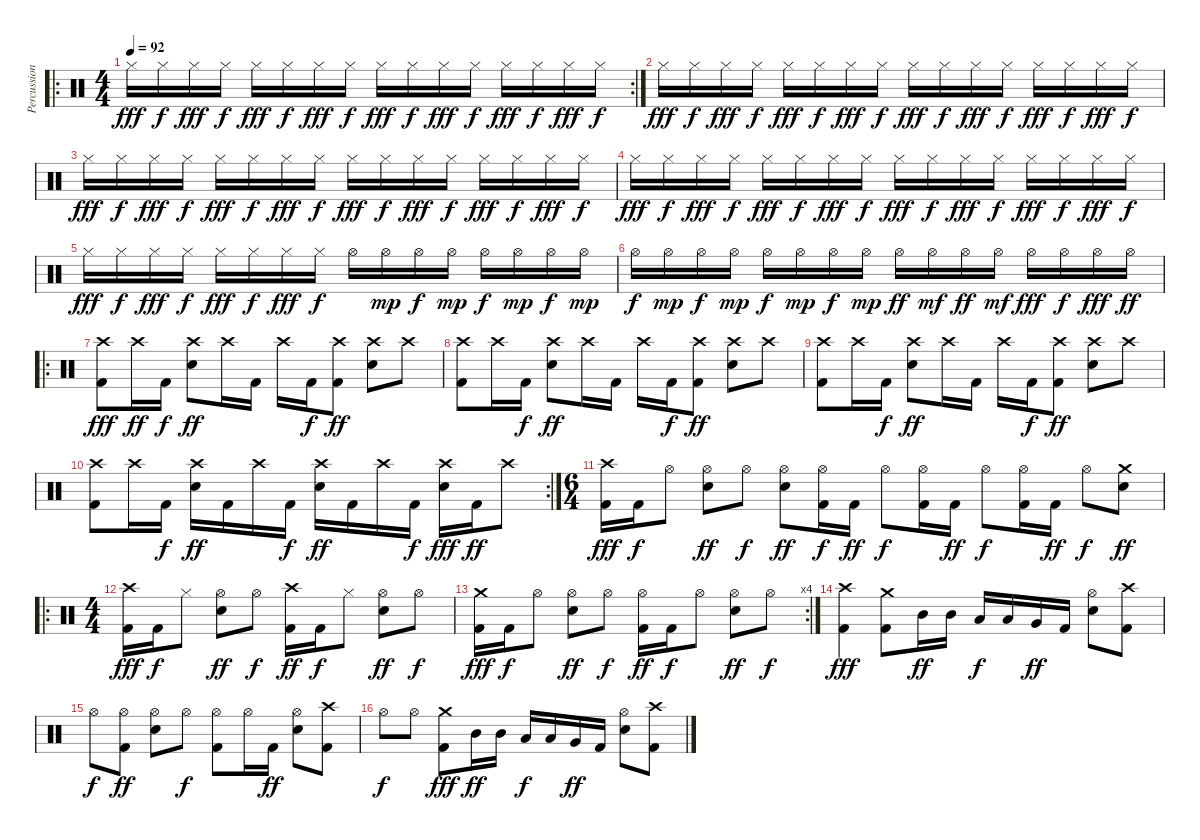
\track ("Percussions" "Percussion") {instrument percussion}
\staff {score}
\articulation defaults
\ro
\rc 2
\ts (4 4)
\tempo 92
\clef neutral
\ks c "Hi-Hat (closed)".16{dy fff} "Hi-Hat (closed)".16{dy f} "Hi-Hat (closed)".16{dy fff} "Hi-Hat (closed)".16{dy f} "Hi-Hat (closed)".16{dy fff} "Hi-Hat (closed)".16{dy f} "Hi-Hat (closed)".16{dy fff} "Hi-Hat (closed)".16{dy f} "Hi-Hat (closed)".16{dy fff} "Hi-Hat (closed)".16{dy f} "Hi-Hat (closed)".16{dy fff} "Hi-Hat (closed)".16{dy f} "Hi-Hat (closed)".16{dy fff} "Hi-Hat (closed)".16{dy f} "Hi-Hat (closed)".16{dy fff} "Hi-Hat (closed)".16{dy f}
|
"Hi-Hat (closed)".16{dy fff} "Hi-Hat (closed)".16{dy f} "Hi-Hat (closed)".16{dy fff} "Hi-Hat (closed)".16{dy f} "Hi-Hat (closed)".16{dy fff} "Hi-Hat (closed)".16{dy f} "Hi-Hat (closed)".16{dy fff} "Hi-Hat (closed)".16{dy f} "Hi-Hat (closed)".16{dy fff} "Hi-Hat (closed)".16{dy f} "Hi-Hat (closed)".16{dy fff} "Hi-Hat (closed)".16{dy f} "Hi-Hat (closed)".16{dy fff} "Hi-Hat (closed)".16{dy f} "Hi-Hat (closed)".16{dy fff} "Hi-Hat (closed)".16{dy f} |
"Hi-Hat (closed)".16{dy fff} "Hi-Hat (closed)".16{dy f} "Hi-Hat (closed)".16{dy fff} "Hi-Hat (closed)".16{dy f} "Hi-Hat (closed)".16{dy fff} "Hi-Hat (closed)".16{dy f} "Hi-Hat (closed)".16{dy fff} "Hi-Hat (closed)".16{dy f} "Hi-Hat (closed)".16{dy fff} "Hi-Hat (closed)".16{dy f} "Hi-Hat (closed)".16{dy fff} "Hi-Hat (closed)".16{dy f} "Hi-Hat (closed)".16{dy fff} "Hi-Hat (closed)".16{dy f} "Hi-Hat (closed)".16{dy fff} "Hi-Hat (closed)".16{dy f} |
"Hi-Hat (closed)".16{dy fff} "Hi-Hat (closed)".16{dy f} "Hi-Hat (closed)".16{dy fff} "Hi-Hat (closed)".16{dy f} "Hi-Hat (closed)".16{dy fff} "Hi-Hat (closed)".16{dy f} "Hi-Hat (closed)".16{dy fff} "Hi-Hat (closed)".16{dy f} "Hi-Hat (closed)".16{dy fff} "Hi-Hat (closed)".16{dy f} "Hi-Hat (closed)".16{dy fff} "Hi-Hat (closed)".16{dy f} "Hi-Hat (closed)".16{dy fff} "Hi-Hat (closed)".16{dy f} "Hi-Hat (closed)".16{dy fff} "Hi-Hat (closed)".16{dy f} |
"Hi-Hat (closed)".16{dy fff} "Hi-Hat (closed)".16{dy f} "Hi-Hat (closed)".16{dy fff} "Hi-Hat (closed)".16{dy f} "Hi-Hat (closed)".16{dy fff} "Hi-Hat (closed)".16{dy f} "Hi-Hat (closed)".16{dy fff} "Hi-Hat (closed)".16{dy f} "Hi-Hat (open)".16 "Hi-Hat (open)".16{dy mp} "Hi-Hat (open)".16{dy f} "Hi-Hat (open)".16{dy mp} "Hi-Hat (open)".16{dy f} "Hi-Hat (open)".16{dy mp} "Hi-Hat (open)".16{dy f} "Hi-Hat (open)".16{dy mp} |
"Hi-Hat (open)".16{dy f} "Hi-Hat (open)".16{dy mp} "Hi-Hat (open)".16{dy f} "Hi-Hat (open)".16{dy mp} "Hi-Hat (open)".16{dy f} "Hi-Hat (open)".16{dy mp} "Hi-Hat (open)".16{dy f} "Hi-Hat (open)".16{dy mp} "Hi-Hat (open)".16{dy ff} "Hi-Hat (open)".16{dy mf} "Hi-Hat (open)".16{dy ff} "Hi-Hat (open)".16{dy mf} "Hi-Hat (open)".16{dy fff} "Hi-Hat (open)".16{dy f} "Hi-Hat (open)".16{dy fff} "Hi-Hat (open)".16{dy ff} |
\ro
("Crash high (hit)" "Kick (hit) 2").8{dy fff} "Crash high (hit)".16{dy ff} "Kick (hit) 2".16{dy f} ("Crash high (hit)" "Electric Snare (hit)").8{dy ff} "Crash high (hit)".16 "Kick (hit) 2".16 "Crash high (hit)".16 "Kick (hit) 2".16{dy f} ("Crash high (hit)" "Kick (hit) 2").8{dy ff} ("Crash high (hit)" "Electric Snare (hit)").8 "Crash high (hit)".8 |
("Crash high (hit)" "Kick (hit) 2").8 "Crash high (hit)".16 "Kick (hit) 2".16{dy f} ("Crash high (hit)" "Electric Snare (hit)").8{dy ff} "Crash high (hit)".16 "Kick (hit) 2".16 "Crash high (hit)".16 "Kick (hit) 2".16{dy f} ("Crash high (hit)" "Kick (hit) 2").8{dy ff} ("Crash high (hit)" "Electric Snare (hit)").8 "Crash high (hit)".8 |
("Crash high (hit)" "Kick (hit) 2").8 "Crash high (hit)".16 "Kick (hit) 2".16{dy f} ("Crash high (hit)" "Electric Snare (hit)").8{dy ff} "Crash high (hit)".16 "Kick (hit) 2".16 "Crash high (hit)".16 "Kick (hit) 2".16{dy f} ("Crash high (hit)" "Kick (hit) 2").8{dy ff} ("Crash high (hit)" "Electric Snare (hit)").8 "Crash high (hit)".8 |
\rc 2
("Crash high (hit)" "Kick (hit) 2").8 "Crash high (hit)".16 "Kick (hit) 2".16{dy f} ("Crash high (hit)" "Electric Snare (hit)").16{dy ff} "Kick (hit) 2".16 "Crash high (hit)".16 "Kick (hit) 2".16{dy f} ("Crash high (hit)" "Electric Snare (hit)").16{dy ff} "Kick (hit) 2".16 "Crash high (hit)".16 "Kick (hit) 2".16{dy f} ("Crash high (hit)" "Electric Snare (hit)").16{dy fff} "Kick (hit) 2".16{dy ff} "Crash high (hit)".8 |
\ts (6 4)
("Crash high (hit)" "Kick (hit) 2").16{dy fff} "Kick (hit) 2".16{dy f} "Hi-Hat (open)".8 ("Hi-Hat (open)" "Electric Snare (hit)").8{dy ff} "Hi-Hat (open)".8{dy f} ("Hi-Hat (open)" "Electric Snare (hit)").8{dy ff} ("Hi-Hat (open)" "Kick (hit) 2").16{dy f} "Kick (hit) 2".16{dy ff} "Hi-Hat (open)".8{dy f} ("Hi-Hat (open)" "Kick (hit) 2").16 "Kick (hit) 2".16{dy ff} "Hi-Hat (open)".8{dy f} ("Hi-Hat (open)" "Kick (hit) 2").16 "Kick (hit) 2".16{dy ff} "Hi-Hat (open)".8{dy f} ("Crash medium (hit)" "Electric Snare (hit)").8{dy ff} |
\ro
\ts (4 4)
("Crash high (hit)" "Kick (hit) 2").16{dy fff} "Kick (hit) 2".16{dy f} "Hi-Hat (closed)".8 ("Hi-Hat (open)" "Electric Snare (hit)").8{dy ff} "Hi-Hat (open)".8{dy f} ("Crash high (hit)" "Kick (hit) 2").16{dy ff} "Kick (hit) 2".16{dy f} "Hi-Hat (closed)".8 ("Hi-Hat (open)" "Electric Snare (hit)").8{dy ff} "Hi-Hat (open)".8{dy f} |
\rc 4
("Crash medium (hit)" "Kick (hit) 2").16{dy fff} "Kick (hit) 2".16{dy f} "Hi-Hat (open)".8 ("Hi-Hat (open)" "Electric Snare (hit)").8{dy ff} "Hi-Hat (open)".8{dy f} ("Hi-Hat (open)" "Kick (hit) 2").16{dy ff} "Kick (hit) 2".16{dy f} "Hi-Hat (open)".8 ("Hi-Hat (open)" "Electric Snare (hit)").8{dy ff} "Hi-Hat (open)".8{dy f} |
("Crash high (hit)" "Kick (hit) 2").4{dy fff} ("Crash medium (hit)" "Kick (hit) 2").8 "Mid Tom (hit)".16{dy ff} "Mid Tom (hit)".16 "Low Tom (hit)".16{dy f} "Low Tom (hit)".16 "Very Low Tom (hit)".16{dy ff} "Kick (hit) 2".16 ("Hi-Hat (open)" "Electric Snare (hit)").8 ("Crash high (hit)" "Kick (hit) 2").8 |
"Hi-Hat (open)".8{dy f} ("Hi-Hat (open)" "Kick (hit) 2").8{dy ff} ("Hi-Hat (open)" "Electric Snare (hit)").8 "Hi-Hat (open)".8{dy f} ("Hi-Hat (open)" "Kick (hit) 2").8 "Hi-Hat (open)".16 "Kick (hit) 2".16{dy ff} ("Hi-Hat (open)" "Electric Snare (hit)").8 ("Crash high (hit)" "Kick (hit) 2").8 |
"Hi-Hat (open)".8{dy f} "Hi-Hat (open)".8 ("Crash medium (hit)" "Kick (hit) 2").8{dy fff} "Mid Tom (hit)".16{dy ff} "Mid Tom (hit)".16 "Low Tom (hit)".16{dy f} "Low Tom (hit)".16 "Very Low Tom (hit)".16{dy ff} "Kick (hit) 2".16 ("Hi-Hat (open)" "Electric Snare (hit)").8 ("Crash high (hit)" "Kick (hit) 2").8
